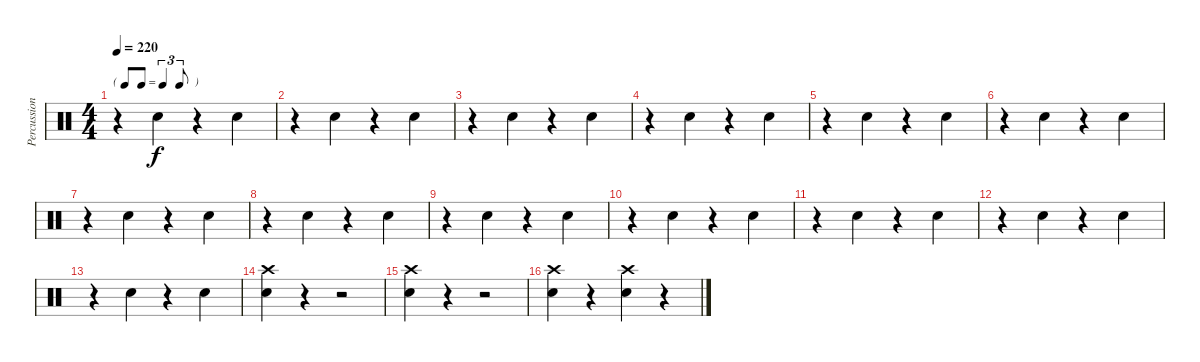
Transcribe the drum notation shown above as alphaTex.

\track ("Percussion" "Percussion") {instrument percussion}
\staff {score}
\articulation defaults
\ts (4 4)
\tf triplet8th
\tempo 220
\clef neutral
\ks c
r.4{dy f} "Snare (hit) 2".4 r.4 "Snare (hit) 2".4 |
r.4 "Snare (hit) 2".4 r.4 "Snare (hit) 2".4 |
r.4 "Snare (hit) 2".4 r.4 "Snare (hit) 2".4 |
r.4 "Snare (hit) 2".4 r.4 "Snare (hit) 2".4 |
r.4 "Snare (hit) 2".4 r.4 "Snare (hit) 2".4 |
r.4 "Snare (hit) 2".4 r.4 "Snare (hit) 2".4 |
r.4 "Snare (hit) 2".4 r.4 "Snare (hit) 2".4 |
r.4 "Snare (hit) 2".4 r.4 "Snare (hit) 2".4 |
r.4 "Snare (hit) 2".4 r.4 "Snare (hit) 2".4 |
r.4 "Snare (hit) 2".4 r.4 "Snare (hit) 2".4 |
r.4 "Snare (hit) 2".4 r.4 "Snare (hit) 2".4 |
r.4 "Snare (hit) 2".4 r.4 "Snare (hit) 2".4 |
r.4 "Snare (hit) 2".4 r.4 "Snare (hit) 2".4 |
("Snare (hit) 2" "Crash high (hit)").4 r.4 r.2 |
("Snare (hit) 2" "Crash high (hit)").4 r.4 r.2 |
("Snare (hit) 2" "Crash high (hit)").4 r.4 ("Snare (hit) 2" "Crash high (hit)").4 r.4
